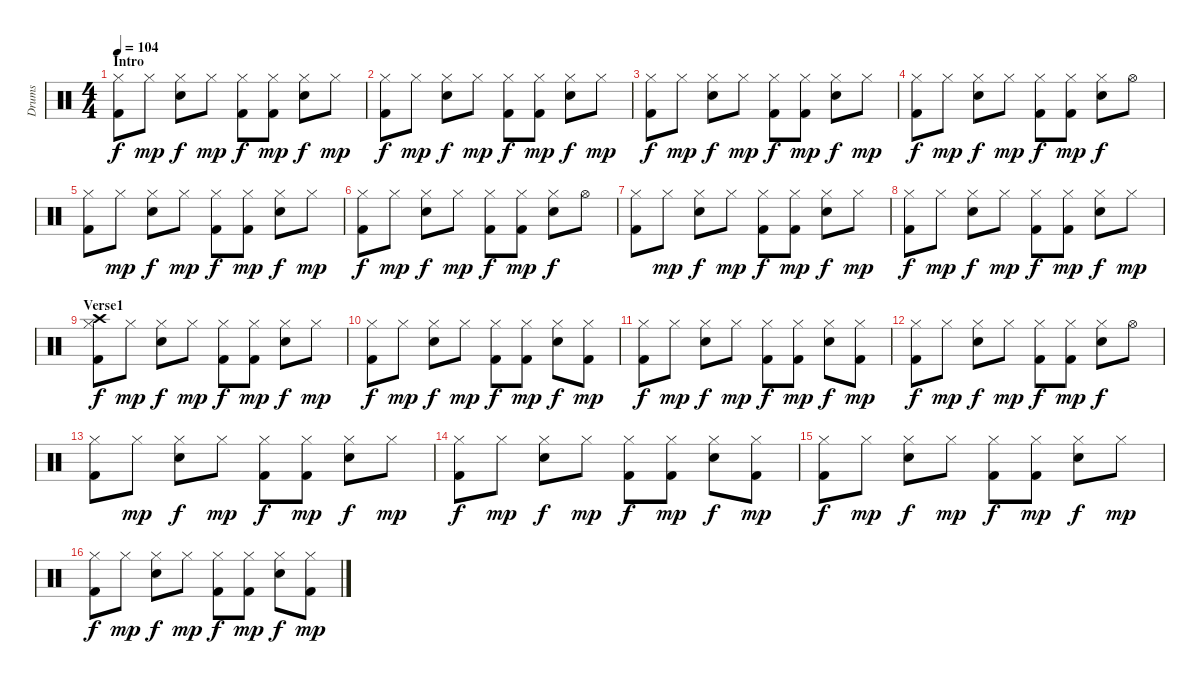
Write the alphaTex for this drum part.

\track ("Drums" "Drums") {instrument percussion}
\staff {score}
\articulation defaults
\ts (4 4)
\section ("" "Intro")
\tempo 104
\clef neutral
\ks c
("Hi-Hat (closed)" "Kick (hit) 2").8{dy f} "Hi-Hat (closed)".8{dy mp} ("Hi-Hat (closed)" "Electric Snare (hit)").8{dy f} "Hi-Hat (closed)".8{dy mp} ("Hi-Hat (closed)" "Kick (hit) 2").8{dy f} ("Hi-Hat (closed)" "Kick (hit) 2").8{dy mp} ("Hi-Hat (closed)" "Electric Snare (hit)").8{dy f} "Hi-Hat (closed)".8{dy mp} |
("Hi-Hat (closed)" "Kick (hit) 2").8{dy f} "Hi-Hat (closed)".8{dy mp} ("Hi-Hat (closed)" "Electric Snare (hit)").8{dy f} "Hi-Hat (closed)".8{dy mp} ("Hi-Hat (closed)" "Kick (hit) 2").8{dy f} ("Hi-Hat (closed)" "Kick (hit) 2").8{dy mp} ("Hi-Hat (closed)" "Electric Snare (hit)").8{dy f} "Hi-Hat (closed)".8{dy mp} |
("Hi-Hat (closed)" "Kick (hit) 2").8{dy f} "Hi-Hat (closed)".8{dy mp} ("Hi-Hat (closed)" "Electric Snare (hit)").8{dy f} "Hi-Hat (closed)".8{dy mp} ("Hi-Hat (closed)" "Kick (hit) 2").8{dy f} ("Hi-Hat (closed)" "Kick (hit) 2").8{dy mp} ("Hi-Hat (closed)" "Electric Snare (hit)").8{dy f} "Hi-Hat (closed)".8{dy mp} |
("Hi-Hat (closed)" "Kick (hit) 2").8{dy f} "Hi-Hat (closed)".8{dy mp} ("Hi-Hat (closed)" "Electric Snare (hit)").8{dy f} "Hi-Hat (closed)".8{dy mp} ("Hi-Hat (closed)" "Kick (hit) 2").8{dy f} ("Hi-Hat (closed)" "Kick (hit) 2").8{dy mp} ("Hi-Hat (closed)" "Electric Snare (hit)").8{dy f} "Hi-Hat (open)".8 |
("Hi-Hat (closed)" "Kick (hit) 2").8 "Hi-Hat (closed)".8{dy mp} ("Hi-Hat (closed)" "Electric Snare (hit)").8{dy f} "Hi-Hat (closed)".8{dy mp} ("Hi-Hat (closed)" "Kick (hit) 2").8{dy f} ("Hi-Hat (closed)" "Kick (hit) 2").8{dy mp} ("Hi-Hat (closed)" "Electric Snare (hit)").8{dy f} "Hi-Hat (closed)".8{dy mp} |
("Hi-Hat (closed)" "Kick (hit) 2").8{dy f} "Hi-Hat (closed)".8{dy mp} ("Hi-Hat (closed)" "Electric Snare (hit)").8{dy f} "Hi-Hat (closed)".8{dy mp} ("Hi-Hat (closed)" "Kick (hit) 2").8{dy f} ("Hi-Hat (closed)" "Kick (hit) 2").8{dy mp} ("Hi-Hat (closed)" "Electric Snare (hit)").8{dy f} "Hi-Hat (open)".8 |
("Hi-Hat (closed)" "Kick (hit) 2").8 "Hi-Hat (closed)".8{dy mp} ("Hi-Hat (closed)" "Electric Snare (hit)").8{dy f} "Hi-Hat (closed)".8{dy mp} ("Hi-Hat (closed)" "Kick (hit) 2").8{dy f} ("Hi-Hat (closed)" "Kick (hit) 2").8{dy mp} ("Hi-Hat (closed)" "Electric Snare (hit)").8{dy f} "Hi-Hat (closed)".8{dy mp} |
("Hi-Hat (closed)" "Kick (hit) 2").8{dy f} "Hi-Hat (closed)".8{dy mp} ("Hi-Hat (closed)" "Electric Snare (hit)").8{dy f} "Hi-Hat (closed)".8{dy mp} ("Hi-Hat (closed)" "Kick (hit) 2").8{dy f} ("Hi-Hat (closed)" "Kick (hit) 2").8{dy mp} ("Hi-Hat (closed)" "Electric Snare (hit)").8{dy f} "Hi-Hat (closed)".8{dy mp} |
\section ("" "Verse1")
("Crash high (hit)" "Hi-Hat (closed)" "Kick (hit) 2").8{dy f} "Hi-Hat (closed)".8{dy mp} ("Hi-Hat (closed)" "Electric Snare (hit)").8{dy f} "Hi-Hat (closed)".8{dy mp} ("Hi-Hat (closed)" "Kick (hit) 2").8{dy f} ("Hi-Hat (closed)" "Kick (hit) 2").8{dy mp} ("Hi-Hat (closed)" "Electric Snare (hit)").8{dy f} "Hi-Hat (closed)".8{dy mp} |
("Hi-Hat (closed)" "Kick (hit) 2").8{dy f} "Hi-Hat (closed)".8{dy mp} ("Hi-Hat (closed)" "Electric Snare (hit)").8{dy f} "Hi-Hat (closed)".8{dy mp} ("Hi-Hat (closed)" "Kick (hit) 2").8{dy f} ("Hi-Hat (closed)" "Kick (hit) 2").8{dy mp} ("Hi-Hat (closed)" "Electric Snare (hit)").8{dy f} ("Hi-Hat (closed)" "Kick (hit) 2").8{dy mp} |
("Hi-Hat (closed)" "Kick (hit) 2").8{dy f} "Hi-Hat (closed)".8{dy mp} ("Hi-Hat (closed)" "Electric Snare (hit)").8{dy f} "Hi-Hat (closed)".8{dy mp} ("Hi-Hat (closed)" "Kick (hit) 2").8{dy f} ("Hi-Hat (closed)" "Kick (hit) 2").8{dy mp} ("Hi-Hat (closed)" "Electric Snare (hit)").8{dy f} ("Hi-Hat (closed)" "Kick (hit) 2").8{dy mp} |
("Hi-Hat (closed)" "Kick (hit) 2").8{dy f} "Hi-Hat (closed)".8{dy mp} ("Hi-Hat (closed)" "Electric Snare (hit)").8{dy f} "Hi-Hat (closed)".8{dy mp} ("Hi-Hat (closed)" "Kick (hit) 2").8{dy f} ("Hi-Hat (closed)" "Kick (hit) 2").8{dy mp} ("Hi-Hat (closed)" "Electric Snare (hit)").8{dy f} "Hi-Hat (open)".8 |
("Hi-Hat (closed)" "Kick (hit) 2").8 "Hi-Hat (closed)".8{dy mp} ("Hi-Hat (closed)" "Electric Snare (hit)").8{dy f} "Hi-Hat (closed)".8{dy mp} ("Hi-Hat (closed)" "Kick (hit) 2").8{dy f} ("Hi-Hat (closed)" "Kick (hit) 2").8{dy mp} ("Hi-Hat (closed)" "Electric Snare (hit)").8{dy f} "Hi-Hat (closed)".8{dy mp} |
("Hi-Hat (closed)" "Kick (hit) 2").8{dy f} "Hi-Hat (closed)".8{dy mp} ("Hi-Hat (closed)" "Electric Snare (hit)").8{dy f} "Hi-Hat (closed)".8{dy mp} ("Hi-Hat (closed)" "Kick (hit) 2").8{dy f} ("Hi-Hat (closed)" "Kick (hit) 2").8{dy mp} ("Hi-Hat (closed)" "Electric Snare (hit)").8{dy f} ("Hi-Hat (closed)" "Kick (hit) 2").8{dy mp} |
("Hi-Hat (closed)" "Kick (hit) 2").8{dy f} "Hi-Hat (closed)".8{dy mp} ("Hi-Hat (closed)" "Electric Snare (hit)").8{dy f} "Hi-Hat (closed)".8{dy mp} ("Hi-Hat (closed)" "Kick (hit) 2").8{dy f} ("Hi-Hat (closed)" "Kick (hit) 2").8{dy mp} ("Hi-Hat (closed)" "Electric Snare (hit)").8{dy f} "Hi-Hat (closed)".8{dy mp} |
("Hi-Hat (closed)" "Kick (hit) 2").8{dy f} "Hi-Hat (closed)".8{dy mp} ("Hi-Hat (closed)" "Electric Snare (hit)").8{dy f} "Hi-Hat (closed)".8{dy mp} ("Hi-Hat (closed)" "Kick (hit) 2").8{dy f} ("Hi-Hat (closed)" "Kick (hit) 2").8{dy mp} ("Hi-Hat (closed)" "Electric Snare (hit)").8{dy f} ("Hi-Hat (closed)" "Kick (hit) 2").8{dy mp}
